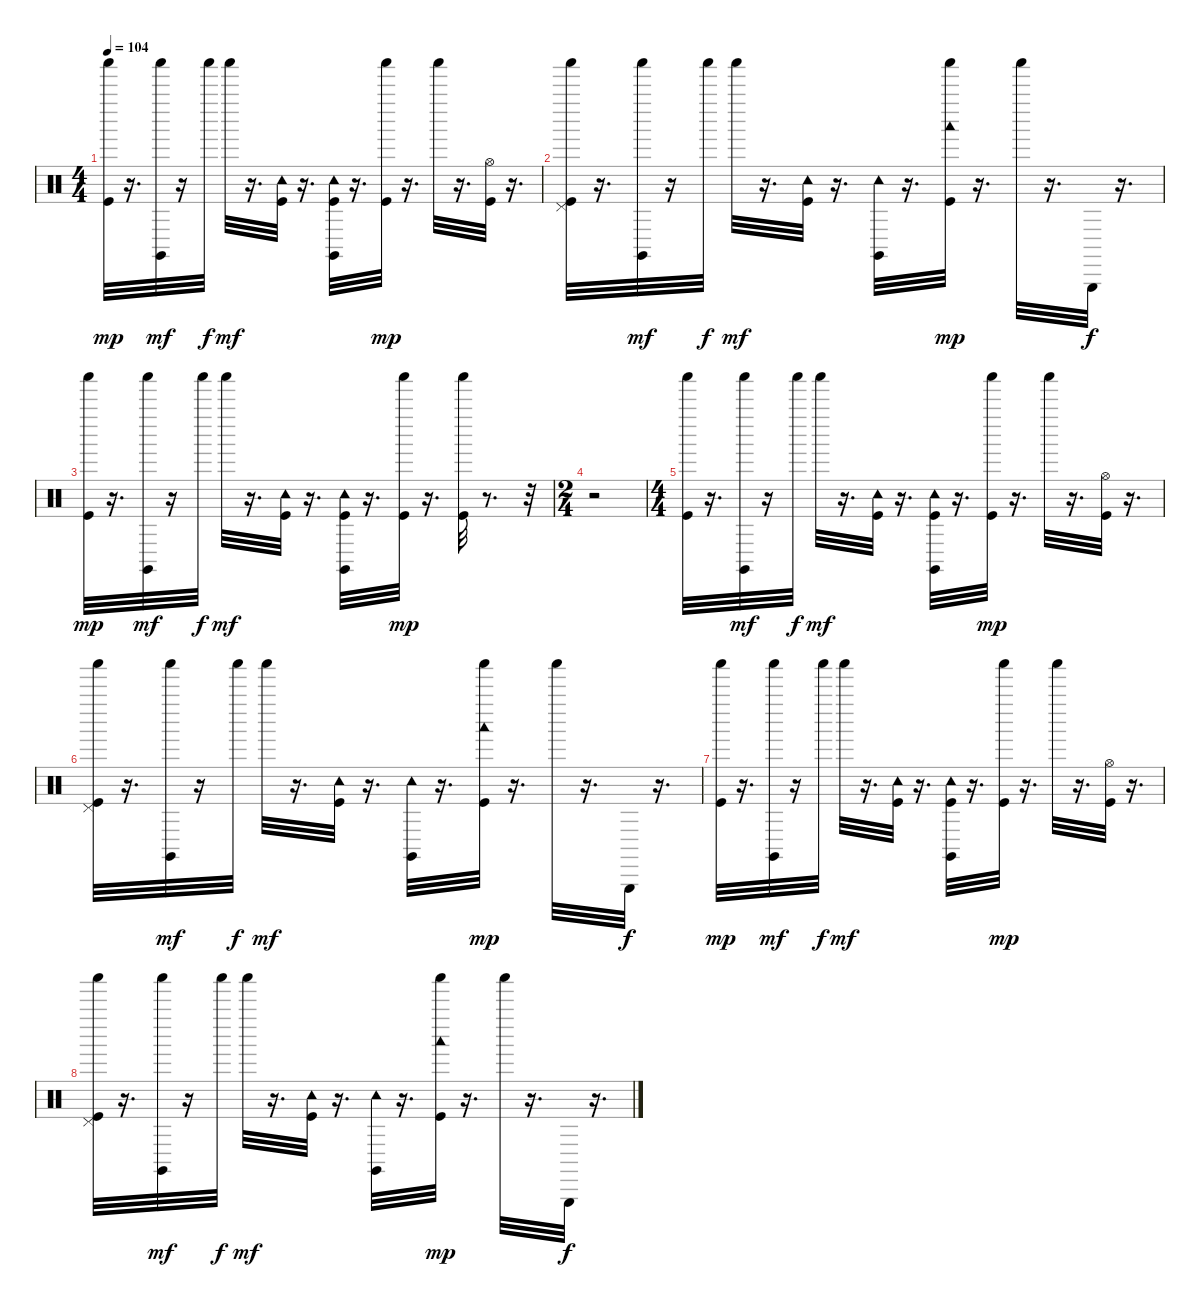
\track "" {instrument percussion}
\staff {score}
\articulation defaults
\ts (4 4)
\tempo 104
\clef neutral
\ks c
("Shaker (hit)" "Kick (hit)").32{dy mp} r.16{d} ("Claves (hit)" "Shaker (hit)").32{dy mf} r.16 "Shaker (hit)".32{dy f} "Shaker (hit)".32{dy mf} r.16{d} ("Kick (hit)" "Tambourine (hit)").32 r.16{d} ("Claves (hit)" "Tambourine (hit)" "Kick (hit)").32 r.16{d} ("Shaker (hit)" "Kick (hit)").32{dy mp} r.16{d} "Shaker (hit)".32 r.16{d} ("Hi-Hat (open)" "Kick (hit)").32 r.16{d} |
("Pedal Hi-Hat (hit)" "Kick (hit)" "Shaker (hit)").32 r.16{d} ("Claves (hit)" "Shaker (hit)").32{dy mf} r.16 "Shaker (hit)".32{dy f} "Shaker (hit)".32{dy mf} r.16{d} ("Kick (hit)" "Tambourine (hit)").32 r.16{d} ("Claves (hit)" "Tambourine (hit)").32 r.16{d} ("Woodblock low (hit)" "Kick (hit)" "Shaker (hit)").32{dy mp} r.16{d} "Shaker (hit)".32 r.16{d} "Triangle (hit)".32{dy f} r.16{d} |
("Shaker (hit)" "Kick (hit)").32{dy mp} r.16{d} ("Claves (hit)" "Shaker (hit)").32{dy mf} r.16 "Shaker (hit)".32{dy f} "Shaker (hit)".32{dy mf} r.16{d} ("Kick (hit)" "Tambourine (hit)").32 r.16{d} ("Claves (hit)" "Tambourine (hit)" "Kick (hit)").32 r.16{d} ("Shaker (hit)" "Kick (hit)").32{dy mp} r.16{d} ("Shaker (hit)" "Kick (hit)").32 r.8{d} r.32 |
\ts (2 4)
r.2 |
\ts (4 4)
("Shaker (hit)" "Kick (hit)").32 r.16{d} ("Claves (hit)" "Shaker (hit)").32{dy mf} r.16 "Shaker (hit)".32{dy f} "Shaker (hit)".32{dy mf} r.16{d} ("Kick (hit)" "Tambourine (hit)").32 r.16{d} ("Claves (hit)" "Tambourine (hit)" "Kick (hit)").32 r.16{d} ("Shaker (hit)" "Kick (hit)").32{dy mp} r.16{d} "Shaker (hit)".32 r.16{d} ("Hi-Hat (open)" "Kick (hit)").32 r.16{d} |
("Pedal Hi-Hat (hit)" "Kick (hit)" "Shaker (hit)").32 r.16{d} ("Claves (hit)" "Shaker (hit)").32{dy mf} r.16 "Shaker (hit)".32{dy f} "Shaker (hit)".32{dy mf} r.16{d} ("Kick (hit)" "Tambourine (hit)").32 r.16{d} ("Claves (hit)" "Tambourine (hit)").32 r.16{d} ("Woodblock low (hit)" "Kick (hit)" "Shaker (hit)").32{dy mp} r.16{d} "Shaker (hit)".32 r.16{d} "Triangle (hit)".32{dy f} r.16{d} |
("Shaker (hit)" "Kick (hit)").32{dy mp} r.16{d} ("Claves (hit)" "Shaker (hit)").32{dy mf} r.16 "Shaker (hit)".32{dy f} "Shaker (hit)".32{dy mf} r.16{d} ("Kick (hit)" "Tambourine (hit)").32 r.16{d} ("Claves (hit)" "Tambourine (hit)" "Kick (hit)").32 r.16{d} ("Shaker (hit)" "Kick (hit)").32{dy mp} r.16{d} "Shaker (hit)".32 r.16{d} ("Hi-Hat (open)" "Kick (hit)").32 r.16{d} |
("Pedal Hi-Hat (hit)" "Kick (hit)" "Shaker (hit)").32 r.16{d} ("Claves (hit)" "Shaker (hit)").32{dy mf} r.16 "Shaker (hit)".32{dy f} "Shaker (hit)".32{dy mf} r.16{d} ("Kick (hit)" "Tambourine (hit)").32 r.16{d} ("Claves (hit)" "Tambourine (hit)").32 r.16{d} ("Woodblock low (hit)" "Kick (hit)" "Shaker (hit)").32{dy mp} r.16{d} "Shaker (hit)".32 r.16{d} "Triangle (hit)".32{dy f} r.16{d}
